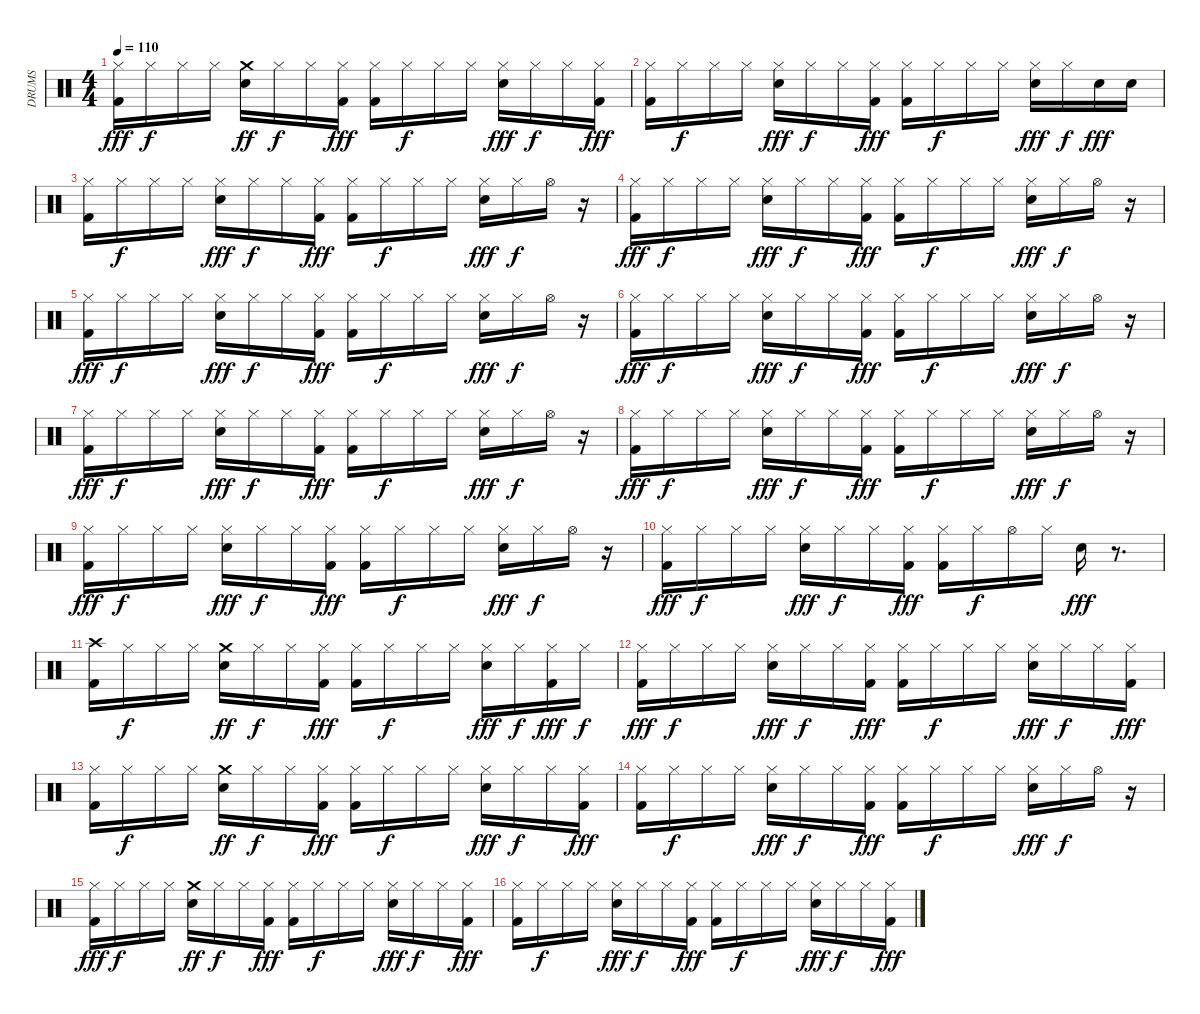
\track ("DRUMS" "DRUMS") {solo instrument percussion}
\staff {score}
\articulation defaults
\ts (4 4)
\tempo 110
\clef neutral
\ks c
("Hi-Hat (closed)" "Kick (hit) 2").16{dy fff} "Hi-Hat (closed)".16{dy f} "Hi-Hat (closed)".16 "Hi-Hat (closed)".16 ("Electric Snare (hit)" "Crash medium (hit)").16{dy ff} "Hi-Hat (closed)".16{dy f} "Hi-Hat (closed)".16 ("Hi-Hat (closed)" "Kick (hit) 2").16{dy fff} ("Kick (hit) 2" "Hi-Hat (closed)").16 "Hi-Hat (closed)".16{dy f} "Hi-Hat (closed)".16 "Hi-Hat (closed)".16 ("Electric Snare (hit)" "Hi-Hat (closed)").16{dy fff} "Hi-Hat (closed)".16{dy f} "Hi-Hat (closed)".16 ("Hi-Hat (closed)" "Kick (hit) 2").16{dy fff} |
("Kick (hit) 2" "Hi-Hat (closed)").16 "Hi-Hat (closed)".16{dy f} "Hi-Hat (closed)".16 "Hi-Hat (closed)".16 ("Electric Snare (hit)" "Hi-Hat (closed)").16{dy fff} "Hi-Hat (closed)".16{dy f} "Hi-Hat (closed)".16 ("Hi-Hat (closed)" "Kick (hit) 2").16{dy fff} ("Kick (hit) 2" "Hi-Hat (closed)").16 "Hi-Hat (closed)".16{dy f} "Hi-Hat (closed)".16 "Hi-Hat (closed)".16 ("Hi-Hat (closed)" "Electric Snare (hit)").16{dy fff} "Hi-Hat (closed)".16{dy f} "Electric Snare (hit)".16{dy fff} "Electric Snare (hit)".16 |
("Hi-Hat (closed)" "Kick (hit) 2").16 "Hi-Hat (closed)".16{dy f} "Hi-Hat (closed)".16 "Hi-Hat (closed)".16 ("Electric Snare (hit)" "Hi-Hat (closed)").16{dy fff} "Hi-Hat (closed)".16{dy f} "Hi-Hat (closed)".16 ("Hi-Hat (closed)" "Kick (hit) 2").16{dy fff} ("Kick (hit) 2" "Hi-Hat (closed)").16 "Hi-Hat (closed)".16{dy f} "Hi-Hat (closed)".16 "Hi-Hat (closed)".16 ("Electric Snare (hit)" "Hi-Hat (closed)").16{dy fff} "Hi-Hat (closed)".16{dy f} "Hi-Hat (open)".16 r.16 |
("Kick (hit) 2" "Hi-Hat (closed)").16{dy fff} "Hi-Hat (closed)".16{dy f} "Hi-Hat (closed)".16 "Hi-Hat (closed)".16 ("Electric Snare (hit)" "Hi-Hat (closed)").16{dy fff} "Hi-Hat (closed)".16{dy f} "Hi-Hat (closed)".16 ("Hi-Hat (closed)" "Kick (hit) 2").16{dy fff} ("Kick (hit) 2" "Hi-Hat (closed)").16 "Hi-Hat (closed)".16{dy f} "Hi-Hat (closed)".16 "Hi-Hat (closed)".16 ("Electric Snare (hit)" "Hi-Hat (closed)").16{dy fff} "Hi-Hat (closed)".16{dy f} "Hi-Hat (open)".16 r.16 |
("Hi-Hat (closed)" "Kick (hit) 2").16{dy fff} "Hi-Hat (closed)".16{dy f} "Hi-Hat (closed)".16 "Hi-Hat (closed)".16 ("Electric Snare (hit)" "Hi-Hat (closed)").16{dy fff} "Hi-Hat (closed)".16{dy f} "Hi-Hat (closed)".16 ("Hi-Hat (closed)" "Kick (hit) 2").16{dy fff} ("Kick (hit) 2" "Hi-Hat (closed)").16 "Hi-Hat (closed)".16{dy f} "Hi-Hat (closed)".16 "Hi-Hat (closed)".16 ("Electric Snare (hit)" "Hi-Hat (closed)").16{dy fff} "Hi-Hat (closed)".16{dy f} "Hi-Hat (open)".16 r.16 |
("Kick (hit) 2" "Hi-Hat (closed)").16{dy fff} "Hi-Hat (closed)".16{dy f} "Hi-Hat (closed)".16 "Hi-Hat (closed)".16 ("Electric Snare (hit)" "Hi-Hat (closed)").16{dy fff} "Hi-Hat (closed)".16{dy f} "Hi-Hat (closed)".16 ("Hi-Hat (closed)" "Kick (hit) 2").16{dy fff} ("Kick (hit) 2" "Hi-Hat (closed)").16 "Hi-Hat (closed)".16{dy f} "Hi-Hat (closed)".16 "Hi-Hat (closed)".16 ("Electric Snare (hit)" "Hi-Hat (closed)").16{dy fff} "Hi-Hat (closed)".16{dy f} "Hi-Hat (open)".16 r.16 |
("Hi-Hat (closed)" "Kick (hit) 2").16{dy fff} "Hi-Hat (closed)".16{dy f} "Hi-Hat (closed)".16 "Hi-Hat (closed)".16 ("Electric Snare (hit)" "Hi-Hat (closed)").16{dy fff} "Hi-Hat (closed)".16{dy f} "Hi-Hat (closed)".16 ("Hi-Hat (closed)" "Kick (hit) 2").16{dy fff} ("Kick (hit) 2" "Hi-Hat (closed)").16 "Hi-Hat (closed)".16{dy f} "Hi-Hat (closed)".16 "Hi-Hat (closed)".16 ("Electric Snare (hit)" "Hi-Hat (closed)").16{dy fff} "Hi-Hat (closed)".16{dy f} "Hi-Hat (open)".16 r.16 |
("Kick (hit) 2" "Hi-Hat (closed)").16{dy fff} "Hi-Hat (closed)".16{dy f} "Hi-Hat (closed)".16 "Hi-Hat (closed)".16 ("Electric Snare (hit)" "Hi-Hat (closed)").16{dy fff} "Hi-Hat (closed)".16{dy f} "Hi-Hat (closed)".16 ("Hi-Hat (closed)" "Kick (hit) 2").16{dy fff} ("Kick (hit) 2" "Hi-Hat (closed)").16 "Hi-Hat (closed)".16{dy f} "Hi-Hat (closed)".16 "Hi-Hat (closed)".16 ("Electric Snare (hit)" "Hi-Hat (closed)").16{dy fff} "Hi-Hat (closed)".16{dy f} "Hi-Hat (open)".16 r.16 |
("Hi-Hat (closed)" "Kick (hit) 2").16{dy fff} "Hi-Hat (closed)".16{dy f} "Hi-Hat (closed)".16 "Hi-Hat (closed)".16 ("Electric Snare (hit)" "Hi-Hat (closed)").16{dy fff} "Hi-Hat (closed)".16{dy f} "Hi-Hat (closed)".16 ("Hi-Hat (closed)" "Kick (hit) 2").16{dy fff} ("Kick (hit) 2" "Hi-Hat (closed)").16 "Hi-Hat (closed)".16{dy f} "Hi-Hat (closed)".16 "Hi-Hat (closed)".16 ("Electric Snare (hit)" "Hi-Hat (closed)").16{dy fff} "Hi-Hat (closed)".16{dy f} "Hi-Hat (open)".16 r.16 |
("Kick (hit) 2" "Hi-Hat (closed)").16{dy fff} "Hi-Hat (closed)".16{dy f} "Hi-Hat (closed)".16 "Hi-Hat (closed)".16 ("Electric Snare (hit)" "Hi-Hat (closed)").16{dy fff} "Hi-Hat (closed)".16{dy f} "Hi-Hat (closed)".16 ("Hi-Hat (closed)" "Kick (hit) 2").16{dy fff} ("Kick (hit) 2" "Hi-Hat (closed)").16 "Hi-Hat (closed)".16{dy f} "Hi-Hat (open)".16 "Hi-Hat (closed)".16 "Electric Snare (hit)".16{dy fff} r.8{d} |
("Crash high (hit)" "Kick (hit) 2").16 "Hi-Hat (closed)".16{dy f} "Hi-Hat (closed)".16 "Hi-Hat (closed)".16 ("Electric Snare (hit)" "Crash medium (hit)").16{dy ff} "Hi-Hat (closed)".16{dy f} "Hi-Hat (closed)".16 ("Hi-Hat (closed)" "Kick (hit) 2").16{dy fff} ("Kick (hit) 2" "Hi-Hat (closed)").16 "Hi-Hat (closed)".16{dy f} "Hi-Hat (closed)".16 "Hi-Hat (closed)".16 ("Electric Snare (hit)" "Hi-Hat (closed)").16{dy fff} "Hi-Hat (closed)".16{dy f} ("Kick (hit) 2" "Hi-Hat (closed)").16{dy fff} "Hi-Hat (closed)".16{dy f} |
("Kick (hit) 2" "Hi-Hat (closed)").16{dy fff} "Hi-Hat (closed)".16{dy f} "Hi-Hat (closed)".16 "Hi-Hat (closed)".16 ("Electric Snare (hit)" "Hi-Hat (closed)").16{dy fff} "Hi-Hat (closed)".16{dy f} "Hi-Hat (closed)".16 ("Hi-Hat (closed)" "Kick (hit) 2").16{dy fff} ("Kick (hit) 2" "Hi-Hat (closed)").16 "Hi-Hat (closed)".16{dy f} "Hi-Hat (closed)".16 "Hi-Hat (closed)".16 ("Electric Snare (hit)" "Hi-Hat (closed)").16{dy fff} "Hi-Hat (closed)".16{dy f} "Hi-Hat (closed)".16 ("Hi-Hat (closed)" "Kick (hit) 2").16{dy fff} |
("Hi-Hat (closed)" "Kick (hit) 2").16 "Hi-Hat (closed)".16{dy f} "Hi-Hat (closed)".16 "Hi-Hat (closed)".16 ("Electric Snare (hit)" "Crash medium (hit)").16{dy ff} "Hi-Hat (closed)".16{dy f} "Hi-Hat (closed)".16 ("Hi-Hat (closed)" "Kick (hit) 2").16{dy fff} ("Kick (hit) 2" "Hi-Hat (closed)").16 "Hi-Hat (closed)".16{dy f} "Hi-Hat (closed)".16 "Hi-Hat (closed)".16 ("Electric Snare (hit)" "Hi-Hat (closed)").16{dy fff} "Hi-Hat (closed)".16{dy f} "Hi-Hat (closed)".16 ("Hi-Hat (closed)" "Kick (hit) 2").16{dy fff} |
("Kick (hit) 2" "Hi-Hat (closed)").16 "Hi-Hat (closed)".16{dy f} "Hi-Hat (closed)".16 "Hi-Hat (closed)".16 ("Electric Snare (hit)" "Hi-Hat (closed)").16{dy fff} "Hi-Hat (closed)".16{dy f} "Hi-Hat (closed)".16 ("Hi-Hat (closed)" "Kick (hit) 2").16{dy fff} ("Kick (hit) 2" "Hi-Hat (closed)").16 "Hi-Hat (closed)".16{dy f} "Hi-Hat (closed)".16 "Hi-Hat (closed)".16 ("Electric Snare (hit)" "Hi-Hat (closed)").16{dy fff} "Hi-Hat (closed)".16{dy f} "Hi-Hat (open)".16 r.16 |
("Hi-Hat (closed)" "Kick (hit) 2").16{dy fff} "Hi-Hat (closed)".16{dy f} "Hi-Hat (closed)".16 "Hi-Hat (closed)".16 ("Electric Snare (hit)" "Crash medium (hit)").16{dy ff} "Hi-Hat (closed)".16{dy f} "Hi-Hat (closed)".16 ("Hi-Hat (closed)" "Kick (hit) 2").16{dy fff} ("Kick (hit) 2" "Hi-Hat (closed)").16 "Hi-Hat (closed)".16{dy f} "Hi-Hat (closed)".16 "Hi-Hat (closed)".16 ("Electric Snare (hit)" "Hi-Hat (closed)").16{dy fff} "Hi-Hat (closed)".16{dy f} "Hi-Hat (closed)".16 ("Hi-Hat (closed)" "Kick (hit) 2").16{dy fff} |
("Kick (hit) 2" "Hi-Hat (closed)").16 "Hi-Hat (closed)".16{dy f} "Hi-Hat (closed)".16 "Hi-Hat (closed)".16 ("Electric Snare (hit)" "Hi-Hat (closed)").16{dy fff} "Hi-Hat (closed)".16{dy f} "Hi-Hat (closed)".16 ("Hi-Hat (closed)" "Kick (hit) 2").16{dy fff} ("Kick (hit) 2" "Hi-Hat (closed)").16 "Hi-Hat (closed)".16{dy f} "Hi-Hat (closed)".16 "Hi-Hat (closed)".16 ("Electric Snare (hit)" "Hi-Hat (closed)").16{dy fff} "Hi-Hat (closed)".16{dy f} "Hi-Hat (closed)".16 ("Hi-Hat (closed)" "Kick (hit) 2").16{dy fff}
